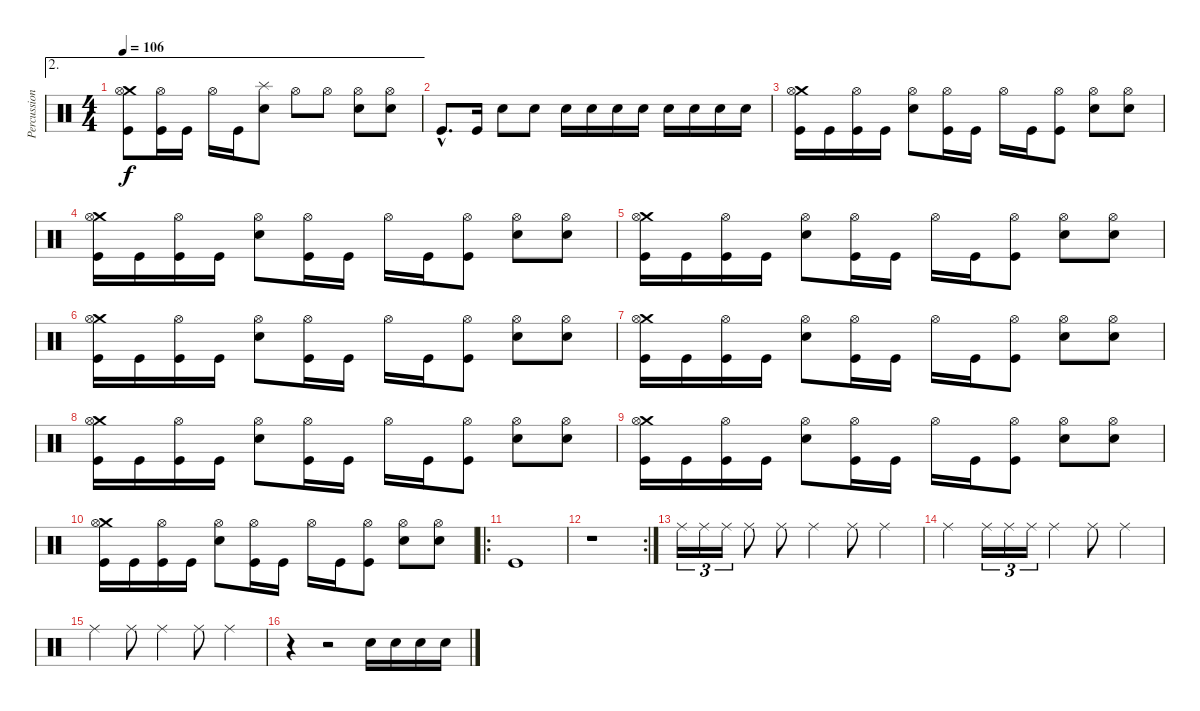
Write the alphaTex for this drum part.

\track ("Percussions" "Percussion") {instrument percussion}
\staff {score}
\articulation defaults
\ae 2
\ts (4 4)
\tempo 106
\clef neutral
\ks c
("Crash medium (hit)" "Hi-Hat (open)" "Kick (hit)").8{dy f} ("Hi-Hat (open)" "Kick (hit)").16 "Kick (hit)".16 "Hi-Hat (open)".16 "Kick (hit)".16 ("Splash (hit)" "Electric Snare (hit)").8 "Hi-Hat (open)".8 "Hi-Hat (open)".8 ("Hi-Hat (open)" "Electric Snare (hit)").8 ("Hi-Hat (open)" "Electric Snare (hit)").8 |
"Kick (hit)"{hac}.8{d} "Kick (hit)".16 "Electric Snare (hit)".8 "Electric Snare (hit)".8 "Electric Snare (hit)".16 "Electric Snare (hit)".16 "Electric Snare (hit)".16 "Electric Snare (hit)".16 "Electric Snare (hit)".16 "Electric Snare (hit)".16 "Electric Snare (hit)".16 "Electric Snare (hit)".16 |
("Crash medium (hit)" "Hi-Hat (open)" "Kick (hit)").16 "Kick (hit)".16 ("Hi-Hat (open)" "Kick (hit)").16 "Kick (hit)".16 ("Hi-Hat (open)" "Electric Snare (hit)").8 ("Hi-Hat (open)" "Kick (hit)").16 "Kick (hit)".16 "Hi-Hat (open)".16 "Kick (hit)".16 ("Hi-Hat (open)" "Kick (hit)").8 ("Hi-Hat (open)" "Electric Snare (hit)").8 ("Hi-Hat (open)" "Electric Snare (hit)").8 |
("Crash medium (hit)" "Hi-Hat (open)" "Kick (hit)").16 "Kick (hit)".16 ("Hi-Hat (open)" "Kick (hit)").16 "Kick (hit)".16 ("Hi-Hat (open)" "Electric Snare (hit)").8 ("Hi-Hat (open)" "Kick (hit)").16 "Kick (hit)".16 "Hi-Hat (open)".16 "Kick (hit)".16 ("Hi-Hat (open)" "Kick (hit)").8 ("Hi-Hat (open)" "Electric Snare (hit)").8 ("Hi-Hat (open)" "Electric Snare (hit)").8 |
("Crash medium (hit)" "Hi-Hat (open)" "Kick (hit)").16 "Kick (hit)".16 ("Hi-Hat (open)" "Kick (hit)").16 "Kick (hit)".16 ("Hi-Hat (open)" "Electric Snare (hit)").8 ("Hi-Hat (open)" "Kick (hit)").16 "Kick (hit)".16 "Hi-Hat (open)".16 "Kick (hit)".16 ("Hi-Hat (open)" "Kick (hit)").8 ("Hi-Hat (open)" "Electric Snare (hit)").8 ("Hi-Hat (open)" "Electric Snare (hit)").8 |
("Crash medium (hit)" "Hi-Hat (open)" "Kick (hit)").16 "Kick (hit)".16 ("Hi-Hat (open)" "Kick (hit)").16 "Kick (hit)".16 ("Hi-Hat (open)" "Electric Snare (hit)").8 ("Hi-Hat (open)" "Kick (hit)").16 "Kick (hit)".16 "Hi-Hat (open)".16 "Kick (hit)".16 ("Hi-Hat (open)" "Kick (hit)").8 ("Hi-Hat (open)" "Electric Snare (hit)").8 ("Hi-Hat (open)" "Electric Snare (hit)").8 |
("Crash medium (hit)" "Hi-Hat (open)" "Kick (hit)").16 "Kick (hit)".16 ("Hi-Hat (open)" "Kick (hit)").16 "Kick (hit)".16 ("Hi-Hat (open)" "Electric Snare (hit)").8 ("Hi-Hat (open)" "Kick (hit)").16 "Kick (hit)".16 "Hi-Hat (open)".16 "Kick (hit)".16 ("Hi-Hat (open)" "Kick (hit)").8 ("Hi-Hat (open)" "Electric Snare (hit)").8 ("Hi-Hat (open)" "Electric Snare (hit)").8 |
("Crash medium (hit)" "Hi-Hat (open)" "Kick (hit)").16 "Kick (hit)".16 ("Hi-Hat (open)" "Kick (hit)").16 "Kick (hit)".16 ("Hi-Hat (open)" "Electric Snare (hit)").8 ("Hi-Hat (open)" "Kick (hit)").16 "Kick (hit)".16 "Hi-Hat (open)".16 "Kick (hit)".16 ("Hi-Hat (open)" "Kick (hit)").8 ("Hi-Hat (open)" "Electric Snare (hit)").8 ("Hi-Hat (open)" "Electric Snare (hit)").8 |
("Crash medium (hit)" "Hi-Hat (open)" "Kick (hit)").16 "Kick (hit)".16 ("Hi-Hat (open)" "Kick (hit)").16 "Kick (hit)".16 ("Hi-Hat (open)" "Electric Snare (hit)").8 ("Hi-Hat (open)" "Kick (hit)").16 "Kick (hit)".16 "Hi-Hat (open)".16 "Kick (hit)".16 ("Hi-Hat (open)" "Kick (hit)").8 ("Hi-Hat (open)" "Electric Snare (hit)").8 ("Hi-Hat (open)" "Electric Snare (hit)").8 |
("Crash medium (hit)" "Hi-Hat (open)" "Kick (hit)").16 "Kick (hit)".16 ("Hi-Hat (open)" "Kick (hit)").16 "Kick (hit)".16 ("Hi-Hat (open)" "Electric Snare (hit)").8 ("Hi-Hat (open)" "Kick (hit)").16 "Kick (hit)".16 "Hi-Hat (open)".16 "Kick (hit)".16 ("Hi-Hat (open)" "Kick (hit)").8 ("Hi-Hat (open)" "Electric Snare (hit)").8 ("Hi-Hat (open)" "Electric Snare (hit)").8 |
\ro "Kick (hit)".1
|
\rc 2
r.1 |
"Ride (middle)".16{tu (3 2)} "Ride (middle)".16{tu (3 2)} "Ride (middle)".16{tu (3 2)} "Ride (middle)".8 "Ride (middle)".8 "Ride (middle)".4 "Ride (middle)".8 "Ride (middle)".4 |
"Ride (middle)".4 "Ride (middle)".16{tu (3 2)} "Ride (middle)".16{tu (3 2)} "Ride (middle)".16{tu (3 2)} "Ride (middle)".4 "Ride (middle)".8 "Ride (middle)".4 |
"Ride (middle)".4 "Ride (middle)".8 "Ride (middle)".4 "Ride (middle)".8 "Ride (middle)".4 |
r.4 r.2 "Electric Snare (hit)".16 "Electric Snare (hit)".16 "Electric Snare (hit)".16 "Electric Snare (hit)".16
